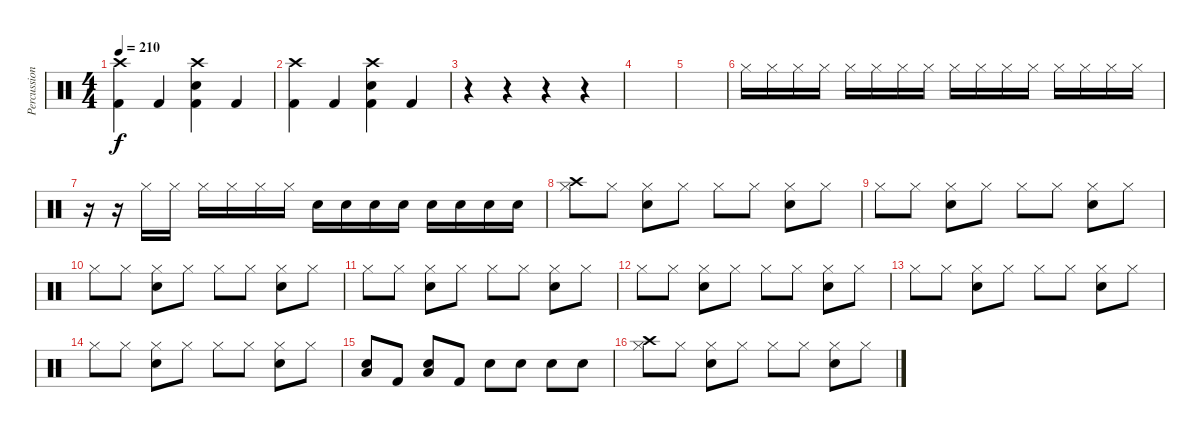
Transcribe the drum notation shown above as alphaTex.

\track ("Percussion" "Percussion") {instrument percussion}
\staff {score}
\articulation defaults
\ts (4 4)
\tempo 210
\clef neutral
\ks c
("Crash high (hit)" "Kick (hit) 2").4{dy f} "Kick (hit) 2".4 ("Crash high (hit)" "Snare (hit) 2" "Kick (hit) 2").4 "Kick (hit) 2".4 |
("Crash high (hit)" "Kick (hit) 2").4 "Kick (hit) 2".4 ("Crash high (hit)" "Snare (hit) 2" "Kick (hit) 2").4 "Kick (hit) 2".4 |
r.4 r.4 r.4 r.4 |
|
|
"Hi-Hat (closed)".16 "Hi-Hat (closed)".16 "Hi-Hat (closed)".16 "Hi-Hat (closed)".16 "Hi-Hat (closed)".16 "Hi-Hat (closed)".16 "Hi-Hat (closed)".16 "Hi-Hat (closed)".16 "Hi-Hat (closed)".16 "Hi-Hat (closed)".16 "Hi-Hat (closed)".16 "Hi-Hat (closed)".16 "Hi-Hat (closed)".16 "Hi-Hat (closed)".16 "Hi-Hat (closed)".16 "Hi-Hat (closed)".16 |
r.16 r.16 "Hi-Hat (closed)".16 "Hi-Hat (closed)".16 "Hi-Hat (closed)".16 "Hi-Hat (closed)".16 "Hi-Hat (closed)".16 "Hi-Hat (closed)".16 "Snare (hit) 2".16 "Snare (hit) 2".16 "Snare (hit) 2".16 "Snare (hit) 2".16 "Snare (hit) 2".16 "Snare (hit) 2".16 "Snare (hit) 2".16 "Snare (hit) 2".16 |
("Crash high (hit)" "Hi-Hat (closed)").8 "Hi-Hat (closed)".8 ("Hi-Hat (closed)" "Snare (hit) 2").8 "Hi-Hat (closed)".8 "Hi-Hat (closed)".8 "Hi-Hat (closed)".8 ("Hi-Hat (closed)" "Snare (hit) 2").8 "Hi-Hat (closed)".8 |
"Hi-Hat (closed)".8 "Hi-Hat (closed)".8 ("Hi-Hat (closed)" "Snare (hit) 2").8 "Hi-Hat (closed)".8 "Hi-Hat (closed)".8 "Hi-Hat (closed)".8 ("Hi-Hat (closed)" "Snare (hit) 2").8 "Hi-Hat (closed)".8 |
"Hi-Hat (closed)".8 "Hi-Hat (closed)".8 ("Hi-Hat (closed)" "Snare (hit) 2").8 "Hi-Hat (closed)".8 "Hi-Hat (closed)".8 "Hi-Hat (closed)".8 ("Hi-Hat (closed)" "Snare (hit) 2").8 "Hi-Hat (closed)".8 |
"Hi-Hat (closed)".8 "Hi-Hat (closed)".8 ("Hi-Hat (closed)" "Snare (hit) 2").8 "Hi-Hat (closed)".8 "Hi-Hat (closed)".8 "Hi-Hat (closed)".8 ("Hi-Hat (closed)" "Snare (hit) 2").8 "Hi-Hat (closed)".8 |
"Hi-Hat (closed)".8 "Hi-Hat (closed)".8 ("Hi-Hat (closed)" "Snare (hit) 2").8 "Hi-Hat (closed)".8 "Hi-Hat (closed)".8 "Hi-Hat (closed)".8 ("Hi-Hat (closed)" "Snare (hit) 2").8 "Hi-Hat (closed)".8 |
"Hi-Hat (closed)".8 "Hi-Hat (closed)".8 ("Hi-Hat (closed)" "Snare (hit) 2").8 "Hi-Hat (closed)".8 "Hi-Hat (closed)".8 "Hi-Hat (closed)".8 ("Hi-Hat (closed)" "Snare (hit) 2").8 "Hi-Hat (closed)".8 |
"Hi-Hat (closed)".8 "Hi-Hat (closed)".8 ("Hi-Hat (closed)" "Snare (hit) 2").8 "Hi-Hat (closed)".8 "Hi-Hat (closed)".8 "Hi-Hat (closed)".8 ("Hi-Hat (closed)" "Snare (hit) 2").8 "Hi-Hat (closed)".8 |
("Low Floor Tom (hit)" "Snare (hit) 2").8 "Kick (hit) 2".8 ("Low Floor Tom (hit)" "Snare (hit) 2").8 "Kick (hit) 2".8 "Snare (hit) 2".8 "Snare (hit) 2".8 "Snare (hit) 2".8 "Snare (hit) 2".8 |
("Crash high (hit)" "Hi-Hat (closed)").8 "Hi-Hat (closed)".8 ("Hi-Hat (closed)" "Snare (hit) 2").8 "Hi-Hat (closed)".8 "Hi-Hat (closed)".8 "Hi-Hat (closed)".8 ("Hi-Hat (closed)" "Snare (hit) 2").8 "Hi-Hat (closed)".8
